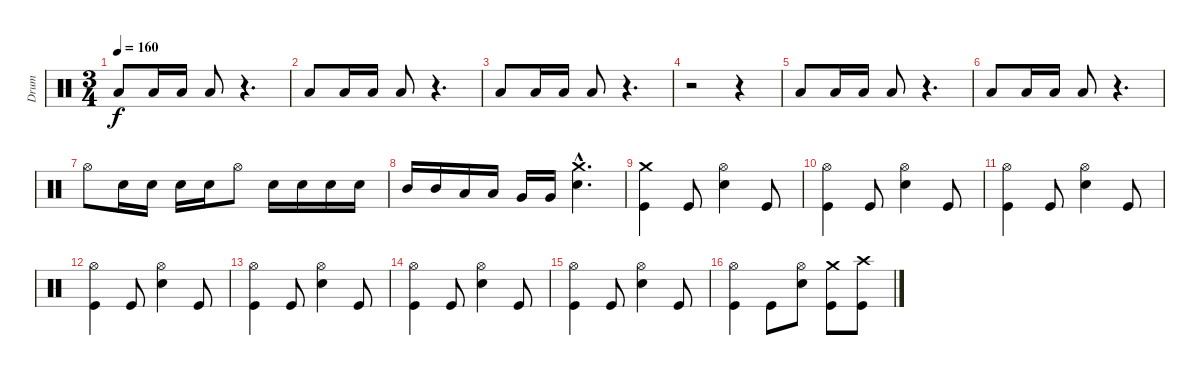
\track ("Drum" "Drum") {instrument percussion}
\staff {score}
\articulation defaults
\ts (3 4)
\tempo 160
\clef neutral
\ks c "Low Floor Tom (hit)".8{dy f} "Low Floor Tom (hit)".16 "Low Floor Tom (hit)".16 "Low Floor Tom (hit)".8
r.4{d} |
"Low Floor Tom (hit)".8 "Low Floor Tom (hit)".16 "Low Floor Tom (hit)".16 "Low Floor Tom (hit)".8 r.4{d} |
"Low Floor Tom (hit)".8 "Low Floor Tom (hit)".16 "Low Floor Tom (hit)".16 "Low Floor Tom (hit)".8 r.4{d} |
r.2 r.4 |
"Low Floor Tom (hit)".8 "Low Floor Tom (hit)".16 "Low Floor Tom (hit)".16 "Low Floor Tom (hit)".8 r.4{d} |
"Low Floor Tom (hit)".8 "Low Floor Tom (hit)".16 "Low Floor Tom (hit)".16 "Low Floor Tom (hit)".8 r.4{d} |
"Hi-Hat (open)".8 "Electric Snare (hit)".16 "Electric Snare (hit)".16 "Electric Snare (hit)".16 "Electric Snare (hit)".16 "Hi-Hat (open)".8 "Electric Snare (hit)".16 "Electric Snare (hit)".16 "Electric Snare (hit)".16 "Electric Snare (hit)".16 |
"Mid Tom (hit)".16 "Mid Tom (hit)".16 "Low Tom (hit)".16 "Low Tom (hit)".16 "Very Low Tom (hit)".16 "Very Low Tom (hit)".16 ("Electric Snare (hit)"{hac} "Crash medium (hit)"{hac}).4{d} |
("Kick (hit)" "Crash medium (hit)").4 "Kick (hit)".8 ("Electric Snare (hit)" "Hi-Hat (open)").4 "Kick (hit)".8 |
("Kick (hit)" "Hi-Hat (open)").4 "Kick (hit)".8 ("Electric Snare (hit)" "Hi-Hat (open)").4 "Kick (hit)".8 |
("Kick (hit)" "Hi-Hat (open)").4 "Kick (hit)".8 ("Electric Snare (hit)" "Hi-Hat (open)").4 "Kick (hit)".8 |
("Kick (hit)" "Hi-Hat (open)").4 "Kick (hit)".8 ("Electric Snare (hit)" "Hi-Hat (open)").4 "Kick (hit)".8 |
("Kick (hit)" "Hi-Hat (open)").4 "Kick (hit)".8 ("Electric Snare (hit)" "Hi-Hat (open)").4 "Kick (hit)".8 |
("Kick (hit)" "Hi-Hat (open)").4 "Kick (hit)".8 ("Electric Snare (hit)" "Hi-Hat (open)").4 "Kick (hit)".8 |
("Kick (hit)" "Hi-Hat (open)").4 "Kick (hit)".8 ("Electric Snare (hit)" "Hi-Hat (open)").4 "Kick (hit)".8 |
("Kick (hit)" "Hi-Hat (open)").4 "Kick (hit)".8 ("Electric Snare (hit)" "Hi-Hat (open)").8 ("Kick (hit)" "Crash medium (hit)").8 ("Kick (hit)" "Crash high (hit)").8
